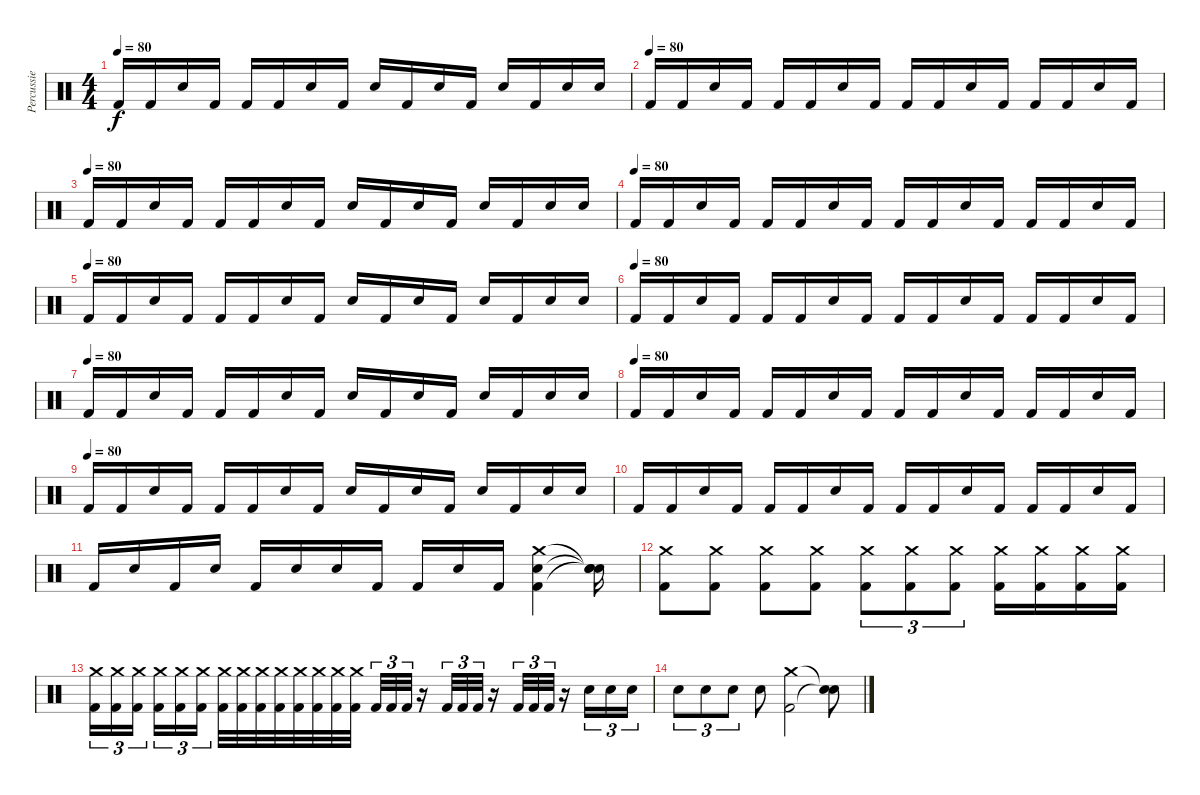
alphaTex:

\track ("Percussie" "Percussie") {instrument percussion}
\staff {score}
\articulation defaults
\ts (4 4)
\tempo 80
\clef neutral
\ks c "Kick (hit) 2".16{dy f} "Kick (hit) 2".16 "Electric Snare (hit)".16 "Kick (hit) 2".16 "Kick (hit) 2".16 "Kick (hit) 2".16 "Electric Snare (hit)".16 "Kick (hit) 2".16 "Electric Snare (hit)".16 "Kick (hit) 2".16 "Electric Snare (hit)".16 "Kick (hit) 2".16 "Electric Snare (hit)".16 "Kick (hit) 2".16 "Electric Snare (hit)".16 "Electric Snare (hit)".16
|
\tempo (80)
"Kick (hit) 2".16 "Kick (hit) 2".16 "Electric Snare (hit)".16 "Kick (hit) 2".16 "Kick (hit) 2".16 "Kick (hit) 2".16 "Electric Snare (hit)".16 "Kick (hit) 2".16 "Kick (hit) 2".16 "Kick (hit) 2".16 "Electric Snare (hit)".16 "Kick (hit) 2".16 "Kick (hit) 2".16 "Kick (hit) 2".16 "Electric Snare (hit)".16 "Kick (hit) 2".16 |
\tempo (80)
"Kick (hit) 2".16 "Kick (hit) 2".16 "Electric Snare (hit)".16 "Kick (hit) 2".16 "Kick (hit) 2".16 "Kick (hit) 2".16 "Electric Snare (hit)".16 "Kick (hit) 2".16 "Electric Snare (hit)".16 "Kick (hit) 2".16 "Electric Snare (hit)".16 "Kick (hit) 2".16 "Electric Snare (hit)".16 "Kick (hit) 2".16 "Electric Snare (hit)".16 "Electric Snare (hit)".16 |
\tempo (80)
"Kick (hit) 2".16 "Kick (hit) 2".16 "Electric Snare (hit)".16 "Kick (hit) 2".16 "Kick (hit) 2".16 "Kick (hit) 2".16 "Electric Snare (hit)".16 "Kick (hit) 2".16 "Kick (hit) 2".16 "Kick (hit) 2".16 "Electric Snare (hit)".16 "Kick (hit) 2".16 "Kick (hit) 2".16 "Kick (hit) 2".16 "Electric Snare (hit)".16 "Kick (hit) 2".16 |
\tempo (80)
"Kick (hit) 2".16 "Kick (hit) 2".16 "Electric Snare (hit)".16 "Kick (hit) 2".16 "Kick (hit) 2".16 "Kick (hit) 2".16 "Electric Snare (hit)".16 "Kick (hit) 2".16 "Electric Snare (hit)".16 "Kick (hit) 2".16 "Electric Snare (hit)".16 "Kick (hit) 2".16 "Electric Snare (hit)".16 "Kick (hit) 2".16 "Electric Snare (hit)".16 "Electric Snare (hit)".16 |
\tempo (80)
"Kick (hit) 2".16 "Kick (hit) 2".16 "Electric Snare (hit)".16 "Kick (hit) 2".16 "Kick (hit) 2".16 "Kick (hit) 2".16 "Electric Snare (hit)".16 "Kick (hit) 2".16 "Kick (hit) 2".16 "Kick (hit) 2".16 "Electric Snare (hit)".16 "Kick (hit) 2".16 "Kick (hit) 2".16 "Kick (hit) 2".16 "Electric Snare (hit)".16 "Kick (hit) 2".16 |
\tempo (80)
"Kick (hit) 2".16 "Kick (hit) 2".16 "Electric Snare (hit)".16 "Kick (hit) 2".16 "Kick (hit) 2".16 "Kick (hit) 2".16 "Electric Snare (hit)".16 "Kick (hit) 2".16 "Electric Snare (hit)".16 "Kick (hit) 2".16 "Electric Snare (hit)".16 "Kick (hit) 2".16 "Electric Snare (hit)".16 "Kick (hit) 2".16 "Electric Snare (hit)".16 "Electric Snare (hit)".16 |
\tempo (80)
"Kick (hit) 2".16 "Kick (hit) 2".16 "Electric Snare (hit)".16 "Kick (hit) 2".16 "Kick (hit) 2".16 "Kick (hit) 2".16 "Electric Snare (hit)".16 "Kick (hit) 2".16 "Kick (hit) 2".16 "Kick (hit) 2".16 "Electric Snare (hit)".16 "Kick (hit) 2".16 "Kick (hit) 2".16 "Kick (hit) 2".16 "Electric Snare (hit)".16 "Kick (hit) 2".16 |
\tempo (80)
"Kick (hit) 2".16 "Kick (hit) 2".16 "Electric Snare (hit)".16 "Kick (hit) 2".16 "Kick (hit) 2".16 "Kick (hit) 2".16 "Electric Snare (hit)".16 "Kick (hit) 2".16 "Electric Snare (hit)".16 "Kick (hit) 2".16 "Electric Snare (hit)".16 "Kick (hit) 2".16 "Electric Snare (hit)".16 "Kick (hit) 2".16 "Electric Snare (hit)".16 "Electric Snare (hit)".16 |
"Kick (hit) 2".16 "Kick (hit) 2".16 "Electric Snare (hit)".16 "Kick (hit) 2".16 "Kick (hit) 2".16 "Kick (hit) 2".16 "Electric Snare (hit)".16 "Kick (hit) 2".16 "Kick (hit) 2".16 "Kick (hit) 2".16 "Electric Snare (hit)".16 "Kick (hit) 2".16 "Kick (hit) 2".16 "Kick (hit) 2".16 "Electric Snare (hit)".16 "Kick (hit) 2".16 |
"Kick (hit) 2".16 "Electric Snare (hit)".16 "Kick (hit) 2".16 "Electric Snare (hit)".16 "Kick (hit) 2".16 "Electric Snare (hit)".16 "Electric Snare (hit)".16 "Kick (hit) 2".16 "Kick (hit) 2".16 "Electric Snare (hit)".16 "Kick (hit) 2".16 ("Kick (hit) 2" "Electric Snare (hit)" "Crash medium (hit)").4 ("Snare (hit)"{t} "Snare (hit)"{t} "Snare (hit)"{t}).16 |
("Kick (hit) 2" "Crash medium (hit)").8 ("Kick (hit) 2" "Crash medium (hit)").8 ("Kick (hit) 2" "Crash medium (hit)").8 ("Kick (hit) 2" "Crash medium (hit)").8 ("Kick (hit) 2" "Crash medium (hit)").8{tu (3 2)} ("Kick (hit) 2" "Crash medium (hit)").8{tu (3 2)} ("Kick (hit) 2" "Crash medium (hit)").8{tu (3 2)} ("Kick (hit) 2" "Crash medium (hit)").16 ("Kick (hit) 2" "Crash medium (hit)").16 ("Kick (hit) 2" "Crash medium (hit)").16 ("Kick (hit) 2" "Crash medium (hit)").16 |
("Kick (hit) 2" "Crash medium (hit)").16{tu (3 2)} ("Kick (hit) 2" "Crash medium (hit)").16{tu (3 2)} ("Kick (hit) 2" "Crash medium (hit)").16{tu (3 2)} ("Kick (hit) 2" "Crash medium (hit)").16{tu (3 2)} ("Kick (hit) 2" "Crash medium (hit)").16{tu (3 2)} ("Kick (hit) 2" "Crash medium (hit)").16{tu (3 2)} ("Kick (hit) 2" "Crash medium (hit)").32 ("Kick (hit) 2" "Crash medium (hit)").32 ("Kick (hit) 2" "Crash medium (hit)").32 ("Kick (hit) 2" "Crash medium (hit)").32 ("Kick (hit) 2" "Crash medium (hit)").32 ("Kick (hit) 2" "Crash medium (hit)").32 ("Kick (hit) 2" "Crash medium (hit)").32 ("Kick (hit) 2" "Crash medium (hit)").32 "Kick (hit) 2".32{tu (3 2)} "Kick (hit) 2".32{tu (3 2)} "Kick (hit) 2".32{tu (3 2)} r.16 "Kick (hit) 2".32{tu (3 2)} "Kick (hit) 2".32{tu (3 2)} "Kick (hit) 2".32{tu (3 2)} r.16 "Kick (hit) 2".32{tu (3 2)} "Kick (hit) 2".32{tu (3 2)} "Kick (hit) 2".32{tu (3 2)} r.16 "Electric Snare (hit)".16{tu (3 2)} "Electric Snare (hit)".16{tu (3 2)} "Electric Snare (hit)".16{tu (3 2)} |
"Electric Snare (hit)".8{tu (3 2)} "Electric Snare (hit)".8{tu (3 2)} "Electric Snare (hit)".8{tu (3 2)} "Electric Snare (hit)".8 ("Kick (hit) 2" "Crash medium (hit)").2 ("Snare (hit)"{t} "Snare (hit)"{t}).8
